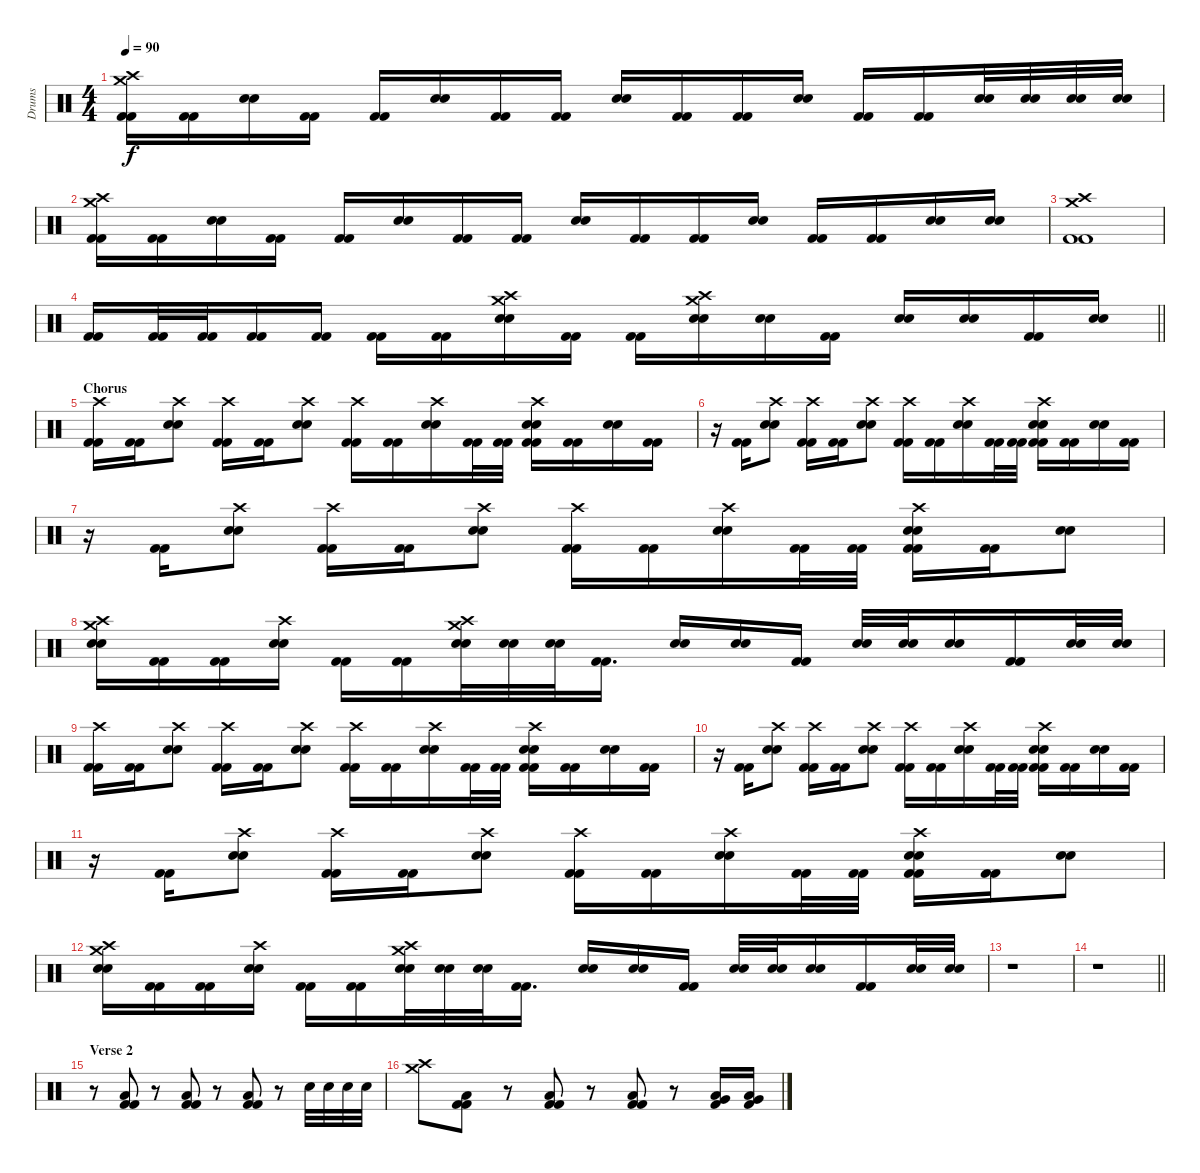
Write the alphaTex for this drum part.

\track ("Drums" "Drums") {instrument percussion}
\staff {score}
\articulation defaults
\ts (4 4)
\tempo 90
\clef neutral
\ks c
("Crash medium (hit)" "Crash high (hit)" "Kick (hit) 2" "Kick (hit) 2").16{dy f} ("Kick (hit) 2" "Kick (hit) 2").16 ("Electric Snare (hit)" "Electric Snare (hit)").16 ("Kick (hit) 2" "Kick (hit) 2").16 ("Kick (hit) 2" "Kick (hit) 2").16 ("Electric Snare (hit)" "Electric Snare (hit)").16 ("Kick (hit) 2" "Kick (hit) 2").16 ("Kick (hit) 2" "Kick (hit) 2").16 ("Electric Snare (hit)" "Electric Snare (hit)").16 ("Kick (hit) 2" "Kick (hit) 2").16 ("Kick (hit) 2" "Kick (hit) 2").16 ("Electric Snare (hit)" "Electric Snare (hit)").16 ("Kick (hit) 2" "Kick (hit) 2").16 ("Kick (hit) 2" "Kick (hit) 2").16{volume 3} ("Electric Snare (hit)" "Electric Snare (hit)").32{volume 16} ("Electric Snare (hit)" "Electric Snare (hit)").32 ("Electric Snare (hit)" "Electric Snare (hit)").32 ("Electric Snare (hit)" "Electric Snare (hit)").32 |
("Crash medium (hit)" "Crash high (hit)" "Kick (hit) 2" "Kick (hit) 2").16 ("Kick (hit) 2" "Kick (hit) 2").16 ("Electric Snare (hit)" "Electric Snare (hit)").16 ("Kick (hit) 2" "Kick (hit) 2").16 ("Kick (hit) 2" "Kick (hit) 2").16 ("Electric Snare (hit)" "Electric Snare (hit)").16 ("Kick (hit) 2" "Kick (hit) 2").16 ("Kick (hit) 2" "Kick (hit) 2").16 ("Electric Snare (hit)" "Electric Snare (hit)").16 ("Kick (hit) 2" "Kick (hit) 2").16 ("Kick (hit) 2" "Kick (hit) 2").16 ("Electric Snare (hit)" "Electric Snare (hit)").16 ("Kick (hit) 2" "Kick (hit) 2").16 ("Kick (hit) 2" "Kick (hit) 2").16 ("Electric Snare (hit)" "Electric Snare (hit)").16 ("Electric Snare (hit)" "Electric Snare (hit)").16 |
("Crash medium (hit)" "Crash high (hit)" "Kick (hit) 2" "Kick (hit) 2").1 |
\barLineRight lightlight
("Kick (hit) 2" "Kick (hit) 2").16 ("Kick (hit) 2" "Kick (hit) 2").32 ("Kick (hit) 2" "Kick (hit) 2").32 ("Kick (hit) 2" "Kick (hit) 2").16 ("Kick (hit) 2" "Kick (hit) 2").16 ("Kick (hit) 2" "Kick (hit) 2").16 ("Kick (hit) 2" "Kick (hit) 2").16 ("Crash high (hit)" "Crash medium (hit)" "Electric Snare (hit)" "Electric Snare (hit)").16 ("Kick (hit) 2" "Kick (hit) 2").16 ("Kick (hit) 2" "Kick (hit) 2").16 ("Crash medium (hit)" "Crash high (hit)" "Electric Snare (hit)" "Electric Snare (hit)").16 ("Electric Snare (hit)" "Electric Snare (hit)").16 ("Kick (hit) 2" "Kick (hit) 2").16 ("Electric Snare (hit)" "Electric Snare (hit)").16 ("Electric Snare (hit)" "Electric Snare (hit)").16 ("Kick (hit) 2" "Kick (hit) 2").16 ("Electric Snare (hit)" "Electric Snare (hit)").16 |
\section ("" "Chorus")
("Crash high (hit)" "Kick (hit) 2" "Kick (hit) 2").16 ("Kick (hit) 2" "Kick (hit) 2").16 ("Crash high (hit)" "Electric Snare (hit)" "Electric Snare (hit)").8 ("Crash high (hit)" "Kick (hit) 2" "Kick (hit) 2").16 ("Kick (hit) 2" "Kick (hit) 2").16 ("Crash high (hit)" "Electric Snare (hit)" "Electric Snare (hit)").8 ("Crash high (hit)" "Kick (hit) 2" "Kick (hit) 2").16 ("Kick (hit) 2" "Kick (hit) 2").16 ("Crash high (hit)" "Electric Snare (hit)" "Electric Snare (hit)").16 ("Kick (hit) 2" "Kick (hit) 2").32 ("Kick (hit) 2" "Kick (hit) 2").32 ("Crash high (hit)" "Electric Snare (hit)" "Electric Snare (hit)" "Kick (hit) 2" "Kick (hit) 2").16 ("Kick (hit) 2" "Kick (hit) 2").16 ("Electric Snare (hit)" "Electric Snare (hit)").16 ("Kick (hit) 2" "Kick (hit) 2").16 |
r.16 ("Kick (hit) 2" "Kick (hit) 2").16 ("Crash high (hit)" "Electric Snare (hit)" "Electric Snare (hit)").8 ("Crash high (hit)" "Kick (hit) 2" "Kick (hit) 2").16 ("Kick (hit) 2" "Kick (hit) 2").16 ("Crash high (hit)" "Electric Snare (hit)" "Electric Snare (hit)").8 ("Crash high (hit)" "Kick (hit) 2" "Kick (hit) 2").16 ("Kick (hit) 2" "Kick (hit) 2").16 ("Crash high (hit)" "Electric Snare (hit)" "Electric Snare (hit)").16 ("Kick (hit) 2" "Kick (hit) 2").32 ("Kick (hit) 2" "Kick (hit) 2").32 ("Crash high (hit)" "Electric Snare (hit)" "Electric Snare (hit)" "Kick (hit) 2" "Kick (hit) 2").16 ("Kick (hit) 2" "Kick (hit) 2").16 ("Electric Snare (hit)" "Electric Snare (hit)").16 ("Kick (hit) 2" "Kick (hit) 2").16 |
r.16 ("Kick (hit) 2" "Kick (hit) 2").16 ("Crash high (hit)" "Electric Snare (hit)" "Electric Snare (hit)").8 ("Crash high (hit)" "Kick (hit) 2" "Kick (hit) 2").16 ("Kick (hit) 2" "Kick (hit) 2").16 ("Crash high (hit)" "Electric Snare (hit)" "Electric Snare (hit)").8 ("Crash high (hit)" "Kick (hit) 2" "Kick (hit) 2").16 ("Kick (hit) 2" "Kick (hit) 2").16 ("Crash high (hit)" "Electric Snare (hit)" "Electric Snare (hit)").16 ("Kick (hit) 2" "Kick (hit) 2").32 ("Kick (hit) 2" "Kick (hit) 2").32 ("Crash high (hit)" "Electric Snare (hit)" "Electric Snare (hit)" "Kick (hit) 2" "Kick (hit) 2").16 ("Kick (hit) 2" "Kick (hit) 2").16 ("Electric Snare (hit)" "Electric Snare (hit)").8 |
("Crash medium (hit)" "Crash high (hit)" "Electric Snare (hit)" "Electric Snare (hit)").16 ("Kick (hit) 2" "Kick (hit) 2").16 ("Kick (hit) 2" "Kick (hit) 2").16 ("Crash high (hit)" "Electric Snare (hit)" "Electric Snare (hit)").16 ("Kick (hit) 2" "Kick (hit) 2").16 ("Kick (hit) 2" "Kick (hit) 2").16 ("Crash medium (hit)" "Crash high (hit)" "Electric Snare (hit)" "Electric Snare (hit)").32 ("Electric Snare (hit)" "Electric Snare (hit)").32 ("Electric Snare (hit)" "Electric Snare (hit)").32 ("Kick (hit) 2" "Kick (hit) 2").16{d} ("Electric Snare (hit)" "Electric Snare (hit)").16 ("Electric Snare (hit)" "Electric Snare (hit)").16 ("Kick (hit) 2" "Kick (hit) 2").16 ("Electric Snare (hit)" "Electric Snare (hit)").32 ("Electric Snare (hit)" "Electric Snare (hit)").32 ("Electric Snare (hit)" "Electric Snare (hit)").16 ("Kick (hit) 2" "Kick (hit) 2").16 ("Electric Snare (hit)" "Electric Snare (hit)").32 ("Electric Snare (hit)" "Electric Snare (hit)").32 |
("Crash high (hit)" "Kick (hit) 2" "Kick (hit) 2").16 ("Kick (hit) 2" "Kick (hit) 2").16 ("Crash high (hit)" "Electric Snare (hit)" "Electric Snare (hit)").8 ("Crash high (hit)" "Kick (hit) 2" "Kick (hit) 2").16 ("Kick (hit) 2" "Kick (hit) 2").16 ("Crash high (hit)" "Electric Snare (hit)" "Electric Snare (hit)").8 ("Crash high (hit)" "Kick (hit) 2" "Kick (hit) 2").16 ("Kick (hit) 2" "Kick (hit) 2").16 ("Crash high (hit)" "Electric Snare (hit)" "Electric Snare (hit)").16 ("Kick (hit) 2" "Kick (hit) 2").32 ("Kick (hit) 2" "Kick (hit) 2").32 ("Crash high (hit)" "Electric Snare (hit)" "Electric Snare (hit)" "Kick (hit) 2" "Kick (hit) 2").16 ("Kick (hit) 2" "Kick (hit) 2").16 ("Electric Snare (hit)" "Electric Snare (hit)").16 ("Kick (hit) 2" "Kick (hit) 2").16 |
r.16 ("Kick (hit) 2" "Kick (hit) 2").16 ("Crash high (hit)" "Electric Snare (hit)" "Electric Snare (hit)").8 ("Crash high (hit)" "Kick (hit) 2" "Kick (hit) 2").16 ("Kick (hit) 2" "Kick (hit) 2").16 ("Crash high (hit)" "Electric Snare (hit)" "Electric Snare (hit)").8 ("Crash high (hit)" "Kick (hit) 2" "Kick (hit) 2").16 ("Kick (hit) 2" "Kick (hit) 2").16 ("Crash high (hit)" "Electric Snare (hit)" "Electric Snare (hit)").16 ("Kick (hit) 2" "Kick (hit) 2").32 ("Kick (hit) 2" "Kick (hit) 2").32 ("Crash high (hit)" "Electric Snare (hit)" "Electric Snare (hit)" "Kick (hit) 2" "Kick (hit) 2").16 ("Kick (hit) 2" "Kick (hit) 2").16 ("Electric Snare (hit)" "Electric Snare (hit)").16 ("Kick (hit) 2" "Kick (hit) 2").16 |
r.16 ("Kick (hit) 2" "Kick (hit) 2").16 ("Crash high (hit)" "Electric Snare (hit)" "Electric Snare (hit)").8 ("Crash high (hit)" "Kick (hit) 2" "Kick (hit) 2").16 ("Kick (hit) 2" "Kick (hit) 2").16 ("Crash high (hit)" "Electric Snare (hit)" "Electric Snare (hit)").8 ("Crash high (hit)" "Kick (hit) 2" "Kick (hit) 2").16 ("Kick (hit) 2" "Kick (hit) 2").16 ("Crash high (hit)" "Electric Snare (hit)" "Electric Snare (hit)").16 ("Kick (hit) 2" "Kick (hit) 2").32 ("Kick (hit) 2" "Kick (hit) 2").32 ("Crash high (hit)" "Electric Snare (hit)" "Electric Snare (hit)" "Kick (hit) 2" "Kick (hit) 2").16 ("Kick (hit) 2" "Kick (hit) 2").16 ("Electric Snare (hit)" "Electric Snare (hit)").8 |
("Crash medium (hit)" "Crash high (hit)" "Electric Snare (hit)" "Electric Snare (hit)").16 ("Kick (hit) 2" "Kick (hit) 2").16 ("Kick (hit) 2" "Kick (hit) 2").16 ("Crash high (hit)" "Electric Snare (hit)" "Electric Snare (hit)").16 ("Kick (hit) 2" "Kick (hit) 2").16 ("Kick (hit) 2" "Kick (hit) 2").16 ("Crash medium (hit)" "Crash high (hit)" "Electric Snare (hit)" "Electric Snare (hit)").32 ("Electric Snare (hit)" "Electric Snare (hit)").32 ("Electric Snare (hit)" "Electric Snare (hit)").32 ("Kick (hit) 2" "Kick (hit) 2").16{d} ("Electric Snare (hit)" "Electric Snare (hit)").16 ("Electric Snare (hit)" "Electric Snare (hit)").16 ("Kick (hit) 2" "Kick (hit) 2").16 ("Electric Snare (hit)" "Electric Snare (hit)").32 ("Electric Snare (hit)" "Electric Snare (hit)").32 ("Electric Snare (hit)" "Electric Snare (hit)").16 ("Kick (hit) 2" "Kick (hit) 2").16 ("Electric Snare (hit)" "Electric Snare (hit)").32 ("Electric Snare (hit)" "Electric Snare (hit)").32 |
r.1 |
\barLineRight lightlight
r.1 |
\section ("" "Verse 2")
r.8 ("Low Floor Tom (hit)" "Kick (hit) 2" "Kick (hit) 2").8 r.8 ("Low Floor Tom (hit)" "Kick (hit) 2" "Kick (hit) 2").8 r.8 ("Low Floor Tom (hit)" "Kick (hit) 2" "Kick (hit) 2").8 r.8 "Electric Snare (hit)".32 "Electric Snare (hit)".32 "Electric Snare (hit)".32 "Electric Snare (hit)".32 |
("Crash high (hit)" "Crash medium (hit)").8 ("Low Floor Tom (hit)" "Kick (hit) 2" "Kick (hit) 2").8 r.8 ("Low Floor Tom (hit)" "Kick (hit) 2" "Kick (hit) 2").8 r.8 ("Low Floor Tom (hit)" "Kick (hit) 2" "Kick (hit) 2").8 r.8 ("Low Floor Tom (hit)" "Very Low Tom (hit)" "Kick (hit) 2").16 ("Low Floor Tom (hit)" "Very Low Tom (hit)" "Kick (hit) 2").16
